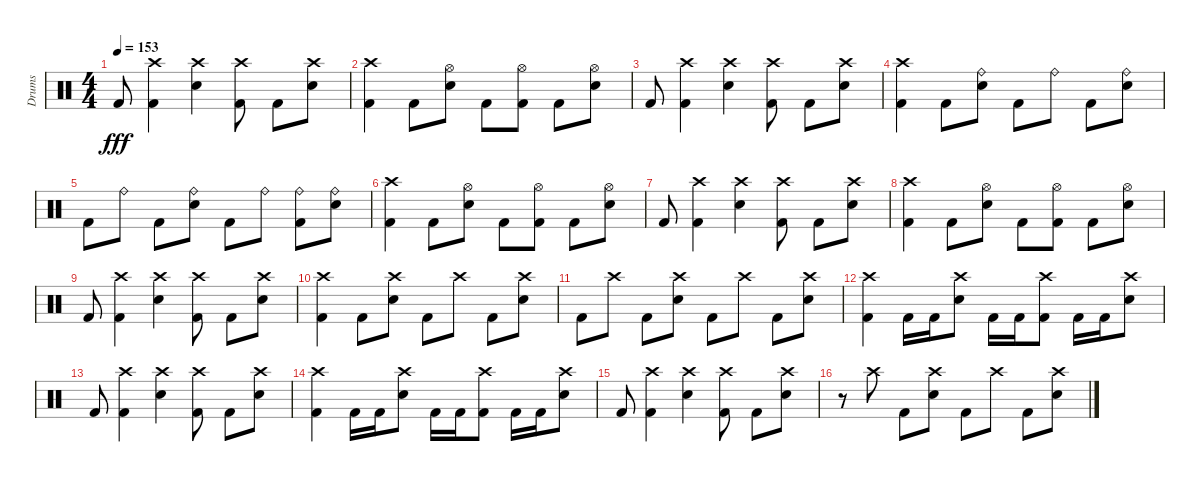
\track ("Drums" "Drums") {instrument percussion}
\staff {score}
\articulation defaults
\ts (4 4)
\tempo 153
\clef neutral
\ks c "Kick (hit) 2".8{dy fff}
("Crash high (hit)" "Kick (hit) 2").4 ("Crash high (hit)" "Electric Snare (hit)").4 ("Crash high (hit)" "Kick (hit) 2").8 "Kick (hit) 2".8 ("Crash high (hit)" "Electric Snare (hit)").8 |
("Crash high (hit)" "Kick (hit) 2").4 "Kick (hit) 2".8 ("Hi-Hat (open)" "Electric Snare (hit)").8 "Kick (hit) 2".8 ("Hi-Hat (open)" "Kick (hit) 2").8 "Kick (hit) 2".8 ("Hi-Hat (open)" "Electric Snare (hit)").8 |
"Kick (hit) 2".8 ("Crash high (hit)" "Kick (hit) 2").4 ("Crash high (hit)" "Electric Snare (hit)").4 ("Crash high (hit)" "Kick (hit) 2").8 "Kick (hit) 2".8 ("Crash high (hit)" "Electric Snare (hit)").8 |
("Crash high (hit)" "Kick (hit) 2").4 "Kick (hit) 2".8 ("Ride (bell)" "Electric Snare (hit)").8 "Kick (hit) 2".8 "Ride (bell)".8 "Kick (hit) 2".8 ("Ride (bell)" "Electric Snare (hit)").8 |
"Kick (hit) 2".8 "Ride (bell)".8 "Kick (hit) 2".8 ("Ride (bell)" "Electric Snare (hit)").8 "Kick (hit) 2".8 "Ride (bell)".8 ("Ride (bell)" "Kick (hit) 2").8 ("Ride (bell)" "Electric Snare (hit)").8 |
("Crash high (hit)" "Kick (hit) 2").4 "Kick (hit) 2".8 ("Hi-Hat (open)" "Electric Snare (hit)").8 "Kick (hit) 2".8 ("Hi-Hat (open)" "Kick (hit) 2").8 "Kick (hit) 2".8 ("Hi-Hat (open)" "Electric Snare (hit)").8 |
"Kick (hit) 2".8 ("Crash high (hit)" "Kick (hit) 2").4 ("Crash high (hit)" "Electric Snare (hit)").4 ("Crash high (hit)" "Kick (hit) 2").8 "Kick (hit) 2".8 ("Crash high (hit)" "Electric Snare (hit)").8 |
("Crash high (hit)" "Kick (hit) 2").4 "Kick (hit) 2".8 ("Hi-Hat (open)" "Electric Snare (hit)").8 "Kick (hit) 2".8 ("Hi-Hat (open)" "Kick (hit) 2").8 "Kick (hit) 2".8 ("Hi-Hat (open)" "Electric Snare (hit)").8 |
"Kick (hit) 2".8 ("Crash high (hit)" "Kick (hit) 2").4 ("Crash high (hit)" "Electric Snare (hit)").4 ("Crash high (hit)" "Kick (hit) 2").8 "Kick (hit) 2".8 ("Crash high (hit)" "Electric Snare (hit)").8 |
("Crash high (hit)" "Kick (hit) 2").4 "Kick (hit) 2".8 ("Crash high (hit)" "Electric Snare (hit)").8 "Kick (hit) 2".8 "Crash high (hit)".8 "Kick (hit) 2".8 ("Crash high (hit)" "Electric Snare (hit)").8 |
"Kick (hit) 2".8 "Crash high (hit)".8 "Kick (hit) 2".8 ("Crash high (hit)" "Electric Snare (hit)").8 "Kick (hit) 2".8 "Crash high (hit)".8 "Kick (hit) 2".8 ("Crash high (hit)" "Electric Snare (hit)").8 |
("Crash high (hit)" "Kick (hit) 2").4 "Kick (hit) 2".16 "Kick (hit) 2".16 ("Crash high (hit)" "Electric Snare (hit)").8 "Kick (hit) 2".16 "Kick (hit) 2".16 ("Crash high (hit)" "Kick (hit) 2").8 "Kick (hit) 2".16 "Kick (hit) 2".16 ("Crash high (hit)" "Electric Snare (hit)").8 |
"Kick (hit) 2".8 ("Crash high (hit)" "Kick (hit) 2").4 ("Crash high (hit)" "Electric Snare (hit)").4 ("Crash high (hit)" "Kick (hit) 2").8 "Kick (hit) 2".8 ("Crash high (hit)" "Electric Snare (hit)").8 |
("Crash high (hit)" "Kick (hit) 2").4 "Kick (hit) 2".16 "Kick (hit) 2".16 ("Crash high (hit)" "Electric Snare (hit)").8 "Kick (hit) 2".16 "Kick (hit) 2".16 ("Crash high (hit)" "Kick (hit) 2").8 "Kick (hit) 2".16 "Kick (hit) 2".16 ("Crash high (hit)" "Electric Snare (hit)").8 |
"Kick (hit) 2".8 ("Crash high (hit)" "Kick (hit) 2").4 ("Crash high (hit)" "Electric Snare (hit)").4 ("Crash high (hit)" "Kick (hit) 2").8 "Kick (hit) 2".8 ("Crash high (hit)" "Electric Snare (hit)").8 |
r.8 "Crash high (hit)".8 "Kick (hit) 2".8 ("Crash high (hit)" "Electric Snare (hit)").8 "Kick (hit) 2".8 "Crash high (hit)".8 "Kick (hit) 2".8 ("Crash high (hit)" "Electric Snare (hit)").8
